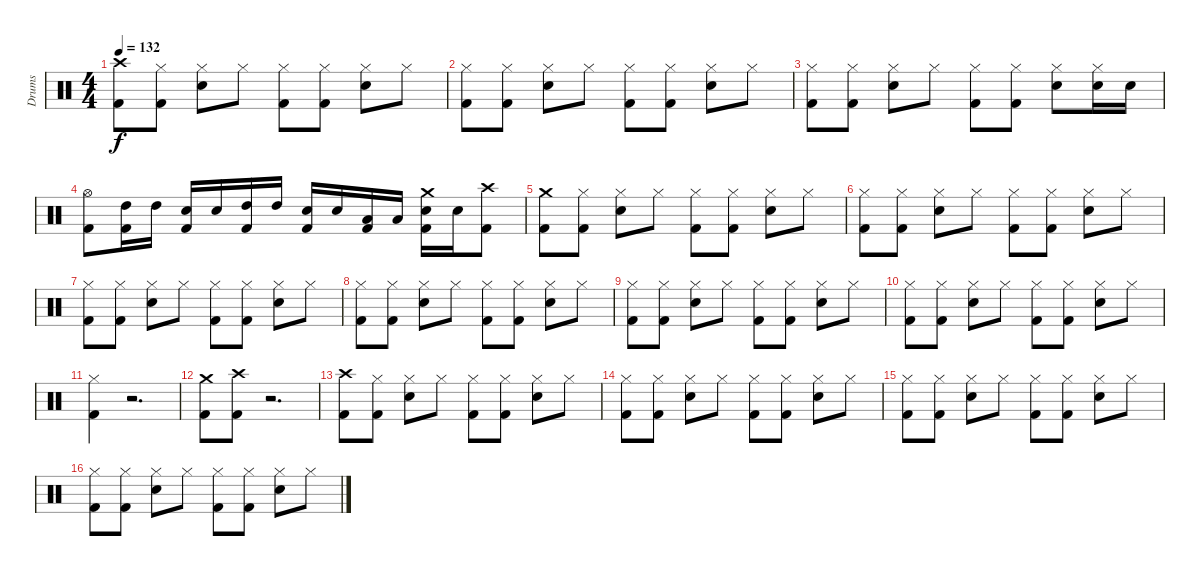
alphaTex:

\track ("Drums" "Drums") {instrument percussion}
\staff {score}
\articulation defaults
\ts (4 4)
\tempo 132
\clef neutral
\ks c
("Kick (hit) 2" "Crash high (hit)").8{dy f} ("Kick (hit) 2" "Hi-Hat (closed)").8 ("Snare (hit) 2" "Hi-Hat (closed)").8 "Hi-Hat (closed)".8 ("Kick (hit) 2" "Hi-Hat (closed)").8 ("Kick (hit) 2" "Hi-Hat (closed)").8 ("Snare (hit) 2" "Hi-Hat (closed)").8 "Hi-Hat (closed)".8 |
("Kick (hit) 2" "Hi-Hat (closed)").8 ("Kick (hit) 2" "Hi-Hat (closed)").8 ("Snare (hit) 2" "Hi-Hat (closed)").8 "Hi-Hat (closed)".8 ("Kick (hit) 2" "Hi-Hat (closed)").8 ("Kick (hit) 2" "Hi-Hat (closed)").8 ("Snare (hit) 2" "Hi-Hat (closed)").8 "Hi-Hat (closed)".8 |
("Kick (hit) 2" "Hi-Hat (closed)").8 ("Kick (hit) 2" "Hi-Hat (closed)").8 ("Snare (hit) 2" "Hi-Hat (closed)").8 "Hi-Hat (closed)".8 ("Kick (hit) 2" "Hi-Hat (closed)").8 ("Kick (hit) 2" "Hi-Hat (closed)").8 ("Snare (hit) 2" "Hi-Hat (closed)").8 ("Snare (hit) 2" "Hi-Hat (closed)").16 "Snare (hit) 2".16 |
("Kick (hit) 2" "Hi-Hat (open)").8 ("Kick (hit) 2" "High Tom (hit)").16 "High Tom (hit)".16 ("Kick (hit) 2" "Snare (hit) 2").16 "Snare (hit) 2".16 ("Kick (hit) 2" "High Tom (hit)").16 "High Tom (hit)".16 ("Kick (hit) 2" "Snare (hit) 2").16 "Snare (hit) 2".16 ("Kick (hit) 2" "Low Tom (hit)").16 "Low Tom (hit)".16 ("Kick (hit) 2" "Snare (hit) 2" "Crash medium (hit)").16 "Snare (hit) 2".16 ("Kick (hit) 2" "Crash high (hit)").8 |
("Kick (hit) 2" "Crash medium (hit)").8 ("Kick (hit) 2" "Hi-Hat (closed)").8 ("Snare (hit) 2" "Hi-Hat (closed)").8 "Hi-Hat (closed)".8 ("Kick (hit) 2" "Hi-Hat (closed)").8 ("Kick (hit) 2" "Hi-Hat (closed)").8 ("Snare (hit) 2" "Hi-Hat (closed)").8 "Hi-Hat (closed)".8 |
("Kick (hit) 2" "Hi-Hat (closed)").8 ("Kick (hit) 2" "Hi-Hat (closed)").8 ("Snare (hit) 2" "Hi-Hat (closed)").8 "Hi-Hat (closed)".8 ("Kick (hit) 2" "Hi-Hat (closed)").8 ("Kick (hit) 2" "Hi-Hat (closed)").8 ("Snare (hit) 2" "Hi-Hat (closed)").8 "Hi-Hat (closed)".8 |
("Kick (hit) 2" "Hi-Hat (closed)").8 ("Kick (hit) 2" "Hi-Hat (closed)").8 ("Snare (hit) 2" "Hi-Hat (closed)").8 "Hi-Hat (closed)".8 ("Kick (hit) 2" "Hi-Hat (closed)").8 ("Kick (hit) 2" "Hi-Hat (closed)").8 ("Snare (hit) 2" "Hi-Hat (closed)").8 "Hi-Hat (closed)".8 |
("Kick (hit) 2" "Hi-Hat (closed)").8 ("Kick (hit) 2" "Hi-Hat (closed)").8 ("Snare (hit) 2" "Hi-Hat (closed)").8 "Hi-Hat (closed)".8 ("Kick (hit) 2" "Hi-Hat (closed)").8 ("Kick (hit) 2" "Hi-Hat (closed)").8 ("Snare (hit) 2" "Hi-Hat (closed)").8 "Hi-Hat (closed)".8 |
("Kick (hit) 2" "Hi-Hat (closed)").8 ("Kick (hit) 2" "Hi-Hat (closed)").8 ("Snare (hit) 2" "Hi-Hat (closed)").8 "Hi-Hat (closed)".8 ("Kick (hit) 2" "Hi-Hat (closed)").8 ("Kick (hit) 2" "Hi-Hat (closed)").8 ("Snare (hit) 2" "Hi-Hat (closed)").8 "Hi-Hat (closed)".8 |
("Kick (hit) 2" "Hi-Hat (closed)").8 ("Kick (hit) 2" "Hi-Hat (closed)").8 ("Snare (hit) 2" "Hi-Hat (closed)").8 "Hi-Hat (closed)".8 ("Kick (hit) 2" "Hi-Hat (closed)").8 ("Kick (hit) 2" "Hi-Hat (closed)").8 ("Snare (hit) 2" "Hi-Hat (closed)").8 "Hi-Hat (closed)".8 |
("Kick (hit) 2" "Hi-Hat (closed)").4 r.2{d} |
("Kick (hit) 2" "Crash medium (hit)").8 ("Kick (hit) 2" "Crash high (hit)").8 r.2{d} |
("Kick (hit) 2" "Crash high (hit)").8 ("Kick (hit) 2" "Hi-Hat (closed)").8 ("Snare (hit) 2" "Hi-Hat (closed)").8 "Hi-Hat (closed)".8 ("Kick (hit) 2" "Hi-Hat (closed)").8 ("Kick (hit) 2" "Hi-Hat (closed)").8 ("Snare (hit) 2" "Hi-Hat (closed)").8 "Hi-Hat (closed)".8 |
("Kick (hit) 2" "Hi-Hat (closed)").8 ("Kick (hit) 2" "Hi-Hat (closed)").8 ("Snare (hit) 2" "Hi-Hat (closed)").8 "Hi-Hat (closed)".8 ("Kick (hit) 2" "Hi-Hat (closed)").8 ("Kick (hit) 2" "Hi-Hat (closed)").8 ("Snare (hit) 2" "Hi-Hat (closed)").8 "Hi-Hat (closed)".8 |
("Kick (hit) 2" "Hi-Hat (closed)").8 ("Kick (hit) 2" "Hi-Hat (closed)").8 ("Snare (hit) 2" "Hi-Hat (closed)").8 "Hi-Hat (closed)".8 ("Kick (hit) 2" "Hi-Hat (closed)").8 ("Kick (hit) 2" "Hi-Hat (closed)").8 ("Snare (hit) 2" "Hi-Hat (closed)").8 "Hi-Hat (closed)".8 |
("Kick (hit) 2" "Hi-Hat (closed)").8 ("Kick (hit) 2" "Hi-Hat (closed)").8 ("Snare (hit) 2" "Hi-Hat (closed)").8 "Hi-Hat (closed)".8 ("Kick (hit) 2" "Hi-Hat (closed)").8 ("Kick (hit) 2" "Hi-Hat (closed)").8 ("Snare (hit) 2" "Hi-Hat (closed)").8 "Hi-Hat (closed)".8
